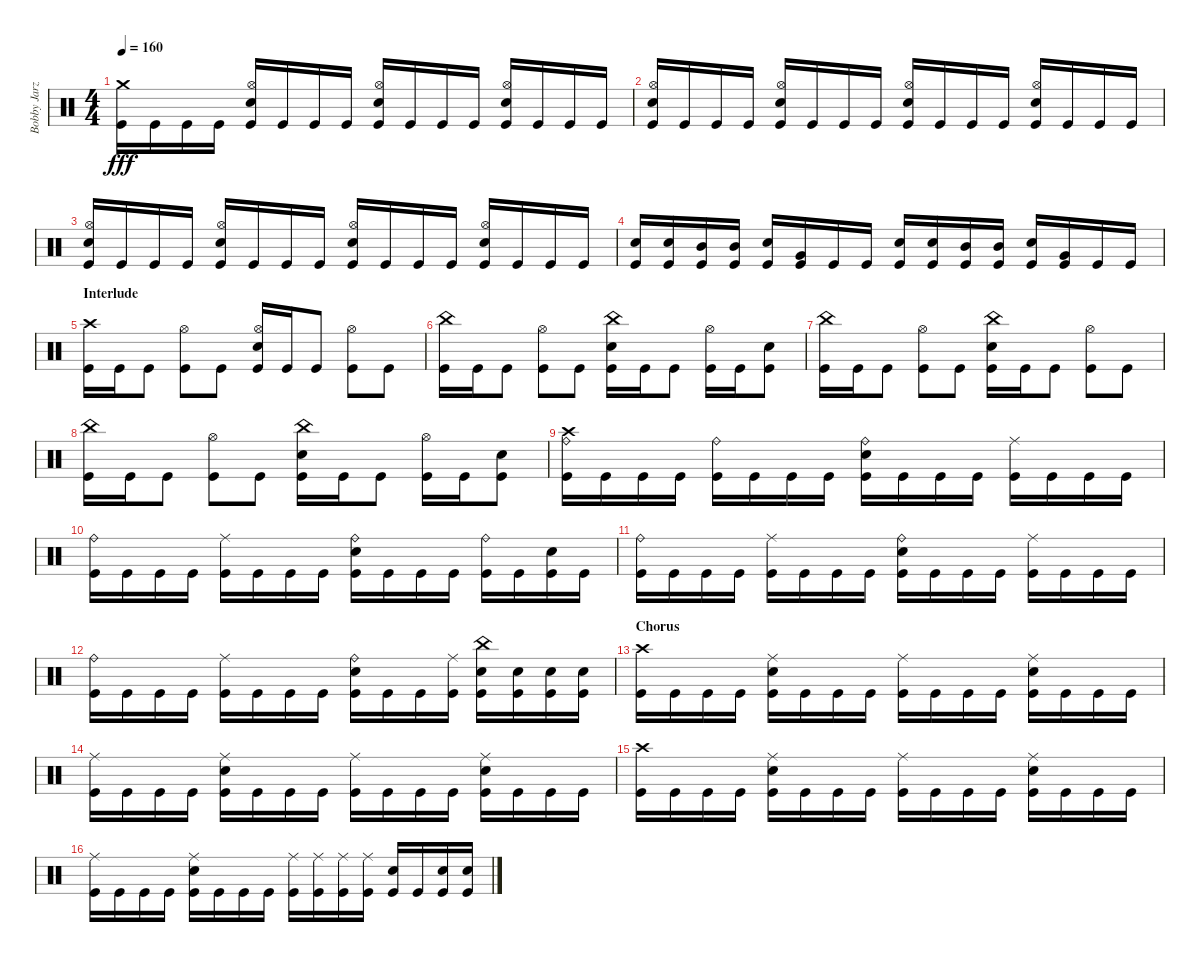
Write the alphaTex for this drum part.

\track ("Bobby Jarzombek" "Bobby Jarz") {instrument percussion}
\staff {score}
\articulation defaults
\ts (4 4)
\tempo 160
\clef neutral
\ks c
("Crash medium (hit)" "Kick (hit)").16{dy fff} "Kick (hit)".16 "Kick (hit)".16 "Kick (hit)".16 ("Hi-Hat (open)" "Electric Snare (hit)" "Kick (hit)").16 "Kick (hit)".16 "Kick (hit)".16 "Kick (hit)".16 ("Hi-Hat (open)" "Electric Snare (hit)" "Kick (hit)").16 "Kick (hit)".16 "Kick (hit)".16 "Kick (hit)".16 ("Hi-Hat (open)" "Electric Snare (hit)" "Kick (hit)").16 "Kick (hit)".16 "Kick (hit)".16 "Kick (hit)".16 |
("Hi-Hat (open)" "Electric Snare (hit)" "Kick (hit)").16 "Kick (hit)".16 "Kick (hit)".16 "Kick (hit)".16 ("Hi-Hat (open)" "Electric Snare (hit)" "Kick (hit)").16 "Kick (hit)".16 "Kick (hit)".16 "Kick (hit)".16 ("Hi-Hat (open)" "Electric Snare (hit)" "Kick (hit)").16 "Kick (hit)".16 "Kick (hit)".16 "Kick (hit)".16 ("Hi-Hat (open)" "Electric Snare (hit)" "Kick (hit)").16 "Kick (hit)".16 "Kick (hit)".16 "Kick (hit)".16 |
("Hi-Hat (open)" "Electric Snare (hit)" "Kick (hit)").16 "Kick (hit)".16 "Kick (hit)".16 "Kick (hit)".16 ("Hi-Hat (open)" "Electric Snare (hit)" "Kick (hit)").16 "Kick (hit)".16 "Kick (hit)".16 "Kick (hit)".16 ("Hi-Hat (open)" "Electric Snare (hit)" "Kick (hit)").16 "Kick (hit)".16 "Kick (hit)".16 "Kick (hit)".16 ("Hi-Hat (open)" "Electric Snare (hit)" "Kick (hit)").16 "Kick (hit)".16 "Kick (hit)".16 "Kick (hit)".16 |
("Electric Snare (hit)" "Kick (hit)").16 ("Electric Snare (hit)" "Kick (hit)").16 ("Mid Tom (hit)" "Kick (hit)").16 ("Mid Tom (hit)" "Kick (hit)").16 ("Electric Snare (hit)" "Kick (hit)").16 ("Very Low Tom (hit)" "Kick (hit)").16 "Kick (hit)".16 "Kick (hit)".16 ("Electric Snare (hit)" "Kick (hit)").16 ("Electric Snare (hit)" "Kick (hit)").16 ("Mid Tom (hit)" "Kick (hit)").16 ("Mid Tom (hit)" "Kick (hit)").16 ("Electric Snare (hit)" "Kick (hit)").16 ("Very Low Tom (hit)" "Kick (hit)").16 "Kick (hit)".16 "Kick (hit)".16 |
\section ("" "Interlude")
("Crash high (hit)" "Kick (hit)").16 "Kick (hit)".16 "Kick (hit)".8 ("Hi-Hat (open)" "Kick (hit)").8 "Kick (hit)".8 ("Hi-Hat (open)" "Electric Snare (hit)" "Kick (hit)").16 "Kick (hit)".16 "Kick (hit)".8 ("Hi-Hat (open)" "Kick (hit)").8 "Kick (hit)".8 |
("China (hit)" "Kick (hit)").16 "Kick (hit)".16 "Kick (hit)".8 ("Hi-Hat (open)" "Kick (hit)").8 "Kick (hit)".8 ("China (hit)" "Electric Snare (hit)" "Kick (hit)").16 "Kick (hit)".16 "Kick (hit)".8 ("Hi-Hat (open)" "Kick (hit)").16 "Kick (hit)".16 ("Electric Snare (hit)" "Kick (hit)").8 |
("China (hit)" "Kick (hit)").16 "Kick (hit)".16 "Kick (hit)".8 ("Hi-Hat (open)" "Kick (hit)").8 "Kick (hit)".8 ("China (hit)" "Electric Snare (hit)" "Kick (hit)").16 "Kick (hit)".16 "Kick (hit)".8 ("Hi-Hat (open)" "Kick (hit)").8 "Kick (hit)".8 |
("China (hit)" "Kick (hit)").16 "Kick (hit)".16 "Kick (hit)".8 ("Hi-Hat (open)" "Kick (hit)").8 "Kick (hit)".8 ("China (hit)" "Electric Snare (hit)" "Kick (hit)").16 "Kick (hit)".16 "Kick (hit)".8 ("Hi-Hat (open)" "Kick (hit)").16 "Kick (hit)".16 ("Electric Snare (hit)" "Kick (hit)").8 |
("Crash high (hit)" "Ride (bell)" "Kick (hit)").16 "Kick (hit)".16 "Kick (hit)".16 "Kick (hit)".16 ("Ride (bell)" "Kick (hit)").16 "Kick (hit)".16 "Kick (hit)".16 "Kick (hit)".16 ("Ride (bell)" "Electric Snare (hit)" "Kick (hit)").16 "Kick (hit)".16 "Kick (hit)".16 "Kick (hit)".16 ("Ride (middle)" "Kick (hit)").16 "Kick (hit)".16 "Kick (hit)".16 "Kick (hit)".16 |
("Ride (bell)" "Kick (hit)").16 "Kick (hit)".16 "Kick (hit)".16 "Kick (hit)".16 ("Ride (middle)" "Kick (hit)").16 "Kick (hit)".16 "Kick (hit)".16 "Kick (hit)".16 ("Ride (bell)" "Electric Snare (hit)" "Kick (hit)").16 "Kick (hit)".16 "Kick (hit)".16 "Kick (hit)".16 ("Ride (bell)" "Kick (hit)").16 "Kick (hit)".16 ("Electric Snare (hit)" "Kick (hit)").16 "Kick (hit)".16 |
("Ride (bell)" "Kick (hit)").16 "Kick (hit)".16 "Kick (hit)".16 "Kick (hit)".16 ("Ride (middle)" "Kick (hit)").16 "Kick (hit)".16 "Kick (hit)".16 "Kick (hit)".16 ("Ride (bell)" "Electric Snare (hit)" "Kick (hit)").16 "Kick (hit)".16 "Kick (hit)".16 "Kick (hit)".16 ("Ride (middle)" "Kick (hit)").16 "Kick (hit)".16 "Kick (hit)".16 "Kick (hit)".16 |
("Ride (bell)" "Kick (hit)").16 "Kick (hit)".16 "Kick (hit)".16 "Kick (hit)".16 ("Ride (middle)" "Kick (hit)").16 "Kick (hit)".16 "Kick (hit)".16 "Kick (hit)".16 ("Ride (bell)" "Electric Snare (hit)" "Kick (hit)").16 "Kick (hit)".16 "Kick (hit)".16 ("Ride (middle)" "Kick (hit)").16 ("China (hit)" "Electric Snare (hit)" "Kick (hit)").16 ("Electric Snare (hit)" "Kick (hit)").16 ("Electric Snare (hit)" "Kick (hit)").16 ("Electric Snare (hit)" "Kick (hit)").16 |
\section ("" "Chorus")
("Crash high (hit)" "Kick (hit)").16 "Kick (hit)".16 "Kick (hit)".16 "Kick (hit)".16 ("Ride (middle)" "Electric Snare (hit)" "Kick (hit)").16 "Kick (hit)".16 "Kick (hit)".16 "Kick (hit)".16 ("Ride (middle)" "Kick (hit)").16 "Kick (hit)".16 "Kick (hit)".16 "Kick (hit)".16 ("Ride (middle)" "Electric Snare (hit)" "Kick (hit)").16 "Kick (hit)".16 "Kick (hit)".16 "Kick (hit)".16 |
("Ride (middle)" "Kick (hit)").16 "Kick (hit)".16 "Kick (hit)".16 "Kick (hit)".16 ("Ride (middle)" "Electric Snare (hit)" "Kick (hit)").16 "Kick (hit)".16 "Kick (hit)".16 "Kick (hit)".16 ("Ride (middle)" "Kick (hit)").16 "Kick (hit)".16 "Kick (hit)".16 "Kick (hit)".16 ("Ride (middle)" "Electric Snare (hit)" "Kick (hit)").16 "Kick (hit)".16 "Kick (hit)".16 "Kick (hit)".16 |
("Crash high (hit)" "Kick (hit)").16 "Kick (hit)".16 "Kick (hit)".16 "Kick (hit)".16 ("Ride (middle)" "Electric Snare (hit)" "Kick (hit)").16 "Kick (hit)".16 "Kick (hit)".16 "Kick (hit)".16 ("Ride (middle)" "Kick (hit)").16 "Kick (hit)".16 "Kick (hit)".16 "Kick (hit)".16 ("Ride (middle)" "Electric Snare (hit)" "Kick (hit)").16 "Kick (hit)".16 "Kick (hit)".16 "Kick (hit)".16 |
("Ride (middle)" "Kick (hit)").16 "Kick (hit)".16 "Kick (hit)".16 "Kick (hit)".16 ("Ride (middle)" "Electric Snare (hit)" "Kick (hit)").16 "Kick (hit)".16 "Kick (hit)".16 "Kick (hit)".16 ("Ride (middle)" "Kick (hit)").16 ("Ride (middle)" "Kick (hit)").16 ("Ride (middle)" "Kick (hit)").16 ("Ride (middle)" "Kick (hit)").16 ("Electric Snare (hit)" "Kick (hit)").16 "Kick (hit)".16 ("Electric Snare (hit)" "Kick (hit)").16 ("Electric Snare (hit)" "Kick (hit)").16
